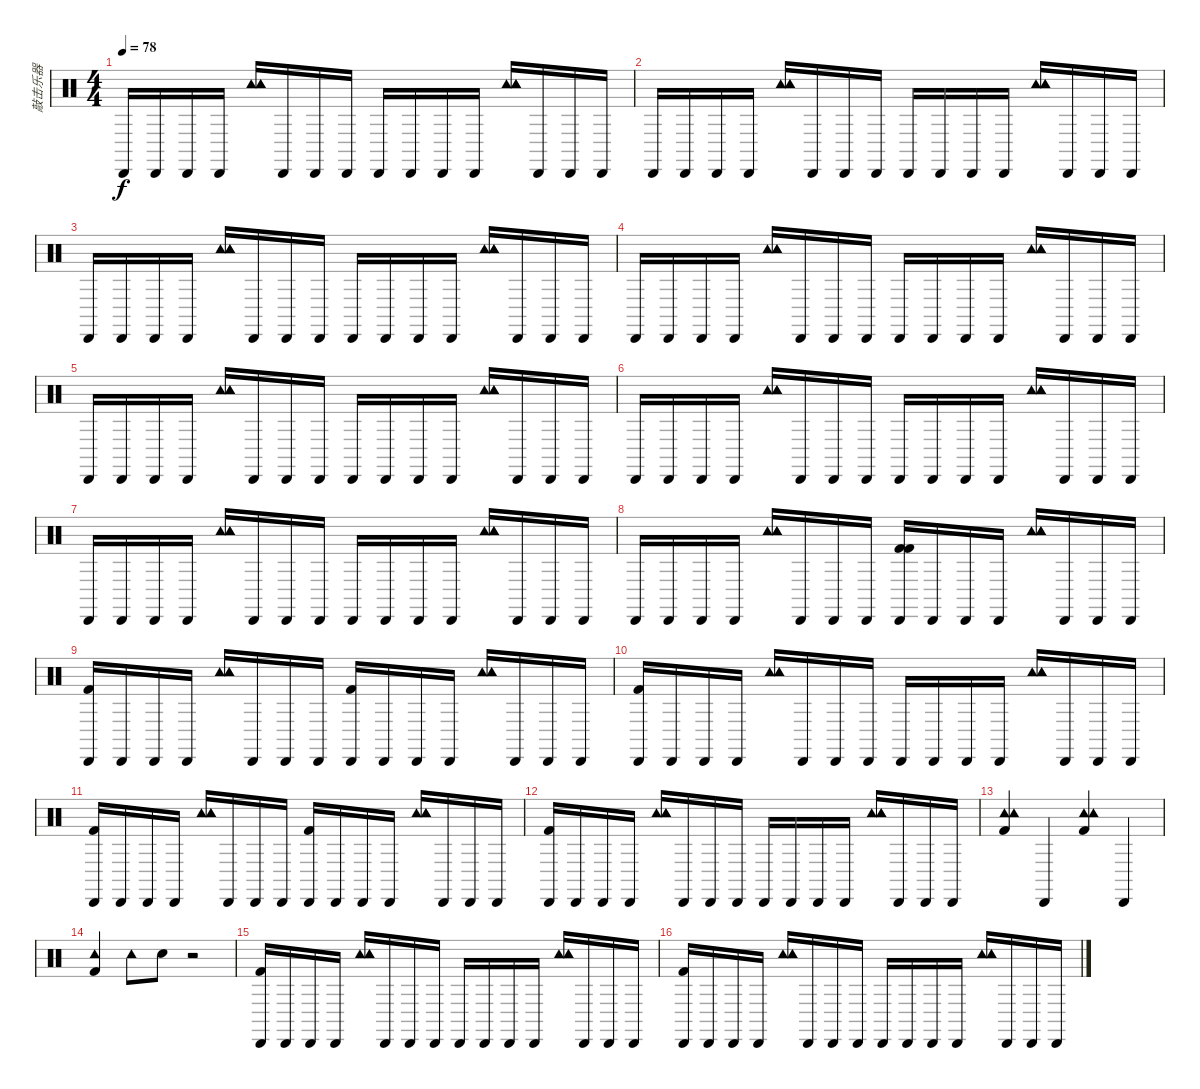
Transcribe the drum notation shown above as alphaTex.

\track ("敲击乐器" "敲击乐器") {instrument percussion}
\staff {score}
\articulation defaults
\ts (4 4)
\tempo 78
\clef neutral
\ks c "Cabasa (hit)".16{dy f} "Cabasa (hit)".16 "Cabasa (hit)".16 "Cabasa (hit)".16
("Tambourine (hit)" "Tambourine (hit)" "Tambourine (hit)").16 "Cabasa (hit)".16 "Cabasa (hit)".16 "Cabasa (hit)".16 "Cabasa (hit)".16 "Cabasa (hit)".16 "Cabasa (hit)".16 "Cabasa (hit)".16 ("Tambourine (hit)" "Tambourine (hit)" "Tambourine (hit)").16 "Cabasa (hit)".16 "Cabasa (hit)".16 "Cabasa (hit)".16 |
"Cabasa (hit)".16 "Cabasa (hit)".16 "Cabasa (hit)".16 "Cabasa (hit)".16 ("Tambourine (hit)" "Tambourine (hit)" "Tambourine (hit)").16 "Cabasa (hit)".16 "Cabasa (hit)".16 "Cabasa (hit)".16 "Cabasa (hit)".16 "Cabasa (hit)".16 "Cabasa (hit)".16 "Cabasa (hit)".16 ("Tambourine (hit)" "Tambourine (hit)" "Tambourine (hit)").16 "Cabasa (hit)".16 "Cabasa (hit)".16 "Cabasa (hit)".16 |
"Cabasa (hit)".16 "Cabasa (hit)".16 "Cabasa (hit)".16 "Cabasa (hit)".16 ("Tambourine (hit)" "Tambourine (hit)" "Tambourine (hit)").16 "Cabasa (hit)".16 "Cabasa (hit)".16 "Cabasa (hit)".16 "Cabasa (hit)".16 "Cabasa (hit)".16 "Cabasa (hit)".16 "Cabasa (hit)".16 ("Tambourine (hit)" "Tambourine (hit)" "Tambourine (hit)").16 "Cabasa (hit)".16 "Cabasa (hit)".16 "Cabasa (hit)".16 |
"Cabasa (hit)".16 "Cabasa (hit)".16 "Cabasa (hit)".16 "Cabasa (hit)".16 ("Tambourine (hit)" "Tambourine (hit)" "Tambourine (hit)").16 "Cabasa (hit)".16 "Cabasa (hit)".16 "Cabasa (hit)".16 "Cabasa (hit)".16 "Cabasa (hit)".16 "Cabasa (hit)".16 "Cabasa (hit)".16 ("Tambourine (hit)" "Tambourine (hit)" "Tambourine (hit)").16 "Cabasa (hit)".16 "Cabasa (hit)".16 "Cabasa (hit)".16 |
"Cabasa (hit)".16 "Cabasa (hit)".16 "Cabasa (hit)".16 "Cabasa (hit)".16 ("Tambourine (hit)" "Tambourine (hit)" "Tambourine (hit)").16 "Cabasa (hit)".16 "Cabasa (hit)".16 "Cabasa (hit)".16 "Cabasa (hit)".16 "Cabasa (hit)".16 "Cabasa (hit)".16 "Cabasa (hit)".16 ("Tambourine (hit)" "Tambourine (hit)" "Tambourine (hit)").16 "Cabasa (hit)".16 "Cabasa (hit)".16 "Cabasa (hit)".16 |
"Cabasa (hit)".16 "Cabasa (hit)".16 "Cabasa (hit)".16 "Cabasa (hit)".16 ("Tambourine (hit)" "Tambourine (hit)" "Tambourine (hit)").16 "Cabasa (hit)".16 "Cabasa (hit)".16 "Cabasa (hit)".16 "Cabasa (hit)".16 "Cabasa (hit)".16 "Cabasa (hit)".16 "Cabasa (hit)".16 ("Tambourine (hit)" "Tambourine (hit)" "Tambourine (hit)").16 "Cabasa (hit)".16 "Cabasa (hit)".16 "Cabasa (hit)".16 |
"Cabasa (hit)".16 "Cabasa (hit)".16 "Cabasa (hit)".16 "Cabasa (hit)".16 ("Tambourine (hit)" "Tambourine (hit)" "Tambourine (hit)").16 "Cabasa (hit)".16 "Cabasa (hit)".16 "Cabasa (hit)".16 "Cabasa (hit)".16 "Cabasa (hit)".16 "Cabasa (hit)".16 "Cabasa (hit)".16 ("Tambourine (hit)" "Tambourine (hit)" "Tambourine (hit)").16 "Cabasa (hit)".16 "Cabasa (hit)".16 "Cabasa (hit)".16 |
"Cabasa (hit)".16 "Cabasa (hit)".16 "Cabasa (hit)".16 "Cabasa (hit)".16 ("Tambourine (hit)" "Tambourine (hit)" "Tambourine (hit)").16 "Cabasa (hit)".16 "Cabasa (hit)".16 "Cabasa (hit)".16 ("Cabasa (hit)" "Kick (hit) 2" "Kick (hit) 2").16 "Cabasa (hit)".16 "Cabasa (hit)".16 "Cabasa (hit)".16 ("Tambourine (hit)" "Tambourine (hit)" "Tambourine (hit)").16 "Cabasa (hit)".16 "Cabasa (hit)".16 "Cabasa (hit)".16 |
("Cabasa (hit)" "Kick (hit) 2").16 "Cabasa (hit)".16 "Cabasa (hit)".16 "Cabasa (hit)".16 ("Tambourine (hit)" "Tambourine (hit)" "Tambourine (hit)").16 "Cabasa (hit)".16 "Cabasa (hit)".16 "Cabasa (hit)".16 ("Cabasa (hit)" "Kick (hit) 2").16 "Cabasa (hit)".16 "Cabasa (hit)".16 "Cabasa (hit)".16 ("Tambourine (hit)" "Tambourine (hit)" "Tambourine (hit)").16 "Cabasa (hit)".16 "Cabasa (hit)".16 "Cabasa (hit)".16 |
("Cabasa (hit)" "Kick (hit) 2").16 "Cabasa (hit)".16 "Cabasa (hit)".16 "Cabasa (hit)".16 ("Tambourine (hit)" "Tambourine (hit)" "Tambourine (hit)").16 "Cabasa (hit)".16 "Cabasa (hit)".16 "Cabasa (hit)".16 "Cabasa (hit)".16 "Cabasa (hit)".16 "Cabasa (hit)".16 "Cabasa (hit)".16 ("Tambourine (hit)" "Tambourine (hit)" "Tambourine (hit)").16 "Cabasa (hit)".16 "Cabasa (hit)".16 "Cabasa (hit)".16 |
("Cabasa (hit)" "Kick (hit) 2").16 "Cabasa (hit)".16 "Cabasa (hit)".16 "Cabasa (hit)".16 ("Tambourine (hit)" "Tambourine (hit)" "Tambourine (hit)").16 "Cabasa (hit)".16 "Cabasa (hit)".16 "Cabasa (hit)".16 ("Cabasa (hit)" "Kick (hit) 2").16 "Cabasa (hit)".16 "Cabasa (hit)".16 "Cabasa (hit)".16 ("Tambourine (hit)" "Tambourine (hit)" "Tambourine (hit)").16 "Cabasa (hit)".16 "Cabasa (hit)".16 "Cabasa (hit)".16 |
("Cabasa (hit)" "Kick (hit) 2").16 "Cabasa (hit)".16 "Cabasa (hit)".16 "Cabasa (hit)".16 ("Tambourine (hit)" "Tambourine (hit)" "Tambourine (hit)").16 "Cabasa (hit)".16 "Cabasa (hit)".16 "Cabasa (hit)".16 "Cabasa (hit)".16 "Cabasa (hit)".16 "Cabasa (hit)".16 "Cabasa (hit)".16 ("Tambourine (hit)" "Tambourine (hit)" "Tambourine (hit)").16 "Cabasa (hit)".16 "Cabasa (hit)".16 "Cabasa (hit)".16 |
("Tambourine (hit)" "Tambourine (hit)" "Kick (hit) 2").4 "Cabasa (hit)".4 ("Tambourine (hit)" "Tambourine (hit)" "Kick (hit) 2").4 "Cabasa (hit)".4 |
("Tambourine (hit)" "Kick (hit) 2").4 "Tambourine (hit)".8 "Metronome (bell)".8 r.2 |
("Cabasa (hit)" "Kick (hit) 2").16 "Cabasa (hit)".16 "Cabasa (hit)".16 "Cabasa (hit)".16 ("Tambourine (hit)" "Tambourine (hit)" "Tambourine (hit)").16 "Cabasa (hit)".16 "Cabasa (hit)".16 "Cabasa (hit)".16 "Cabasa (hit)".16 "Cabasa (hit)".16 "Cabasa (hit)".16 "Cabasa (hit)".16 ("Tambourine (hit)" "Tambourine (hit)" "Tambourine (hit)").16 "Cabasa (hit)".16 "Cabasa (hit)".16 "Cabasa (hit)".16 |
("Cabasa (hit)" "Kick (hit) 2").16 "Cabasa (hit)".16 "Cabasa (hit)".16 "Cabasa (hit)".16 ("Tambourine (hit)" "Tambourine (hit)" "Tambourine (hit)").16 "Cabasa (hit)".16 "Cabasa (hit)".16 "Cabasa (hit)".16 "Cabasa (hit)".16 "Cabasa (hit)".16 "Cabasa (hit)".16 "Cabasa (hit)".16 ("Tambourine (hit)" "Tambourine (hit)" "Tambourine (hit)").16 "Cabasa (hit)".16 "Cabasa (hit)".16 "Cabasa (hit)".16
